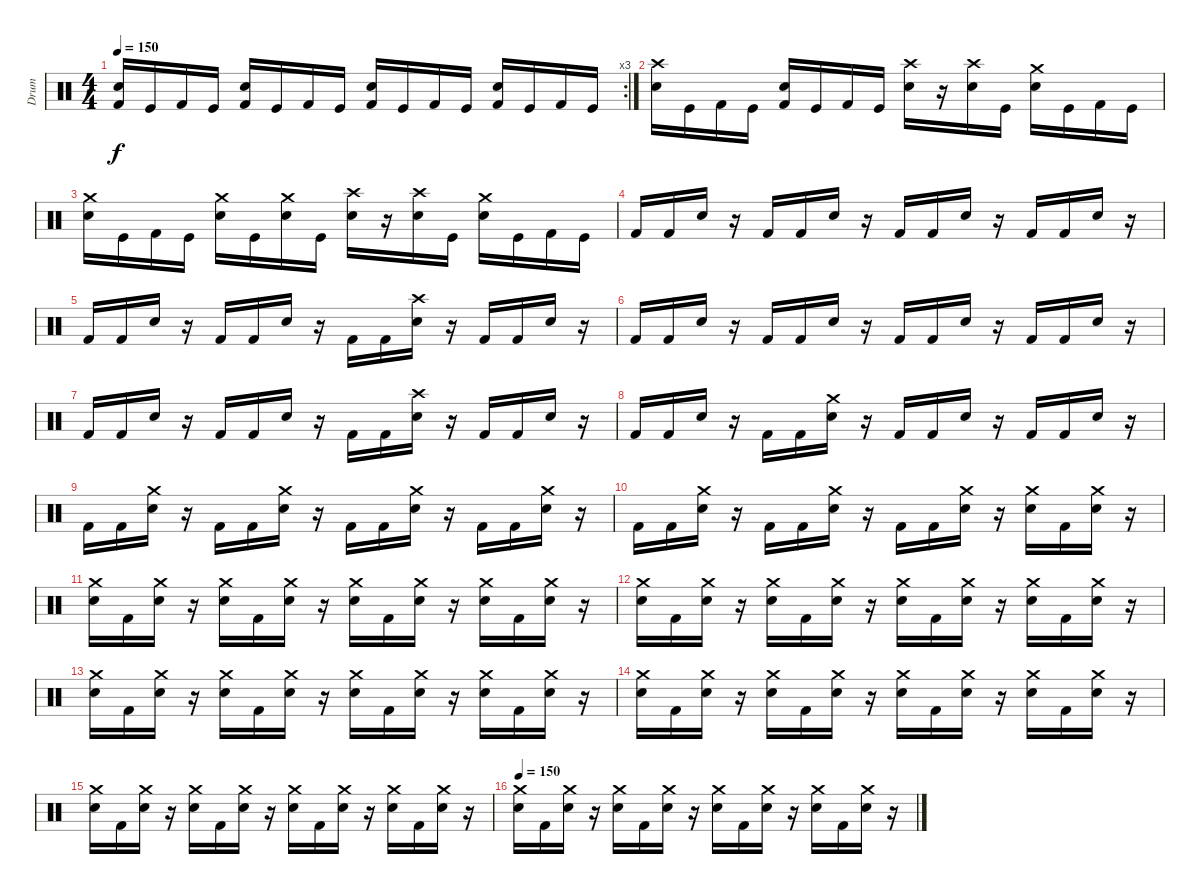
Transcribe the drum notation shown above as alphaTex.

\track ("Drum" "Drum") {instrument percussion}
\staff {score}
\articulation defaults
\rc 3
\ts (4 4)
\tempo 150
\clef neutral
\ks c
("Kick (hit) 2" "Snare (hit) 2").16{dy f} "Kick (hit)".16 "Kick (hit) 2".16 "Kick (hit)".16 ("Kick (hit) 2" "Snare (hit) 2").16 "Kick (hit)".16 "Kick (hit) 2".16 "Kick (hit)".16 ("Kick (hit) 2" "Snare (hit) 2").16 "Kick (hit)".16 "Kick (hit) 2".16 "Kick (hit)".16 ("Kick (hit) 2" "Snare (hit) 2").16 "Kick (hit)".16 "Kick (hit) 2".16 "Kick (hit)".16 |
("Crash high (hit)" "Electric Snare (hit)").16 "Kick (hit)".16 "Kick (hit) 2".16 "Kick (hit)".16 ("Kick (hit) 2" "Snare (hit) 2").16 "Kick (hit)".16 "Kick (hit) 2".16 "Kick (hit)".16 ("Crash high (hit)" "Electric Snare (hit)").16 r.16 ("Crash high (hit)" "Electric Snare (hit)").16 "Kick (hit)".16 ("Electric Snare (hit)" "Crash medium (hit)").16 "Kick (hit)".16 "Kick (hit) 2".16 "Kick (hit)".16 |
("Crash medium (hit)" "Electric Snare (hit)").16 "Kick (hit)".16 "Kick (hit) 2".16 "Kick (hit)".16 ("Electric Snare (hit)" "Crash medium (hit)").16 "Kick (hit)".16 ("Crash medium (hit)" "Electric Snare (hit)").16 "Kick (hit)".16 ("Crash high (hit)" "Electric Snare (hit)").16 r.16 ("Crash high (hit)" "Electric Snare (hit)").16 "Kick (hit)".16 ("Electric Snare (hit)" "Crash medium (hit)").16 "Kick (hit)".16 "Kick (hit) 2".16 "Kick (hit)".16 |
"Kick (hit) 2".16 "Kick (hit) 2".16 "Snare (hit) 2".16 r.16 "Kick (hit) 2".16 "Kick (hit) 2".16 "Snare (hit) 2".16 r.16 "Kick (hit) 2".16 "Kick (hit) 2".16 "Snare (hit) 2".16 r.16 "Kick (hit) 2".16 "Kick (hit) 2".16 "Snare (hit) 2".16 r.16 |
"Kick (hit) 2".16 "Kick (hit) 2".16 "Snare (hit) 2".16 r.16 "Kick (hit) 2".16 "Kick (hit) 2".16 "Snare (hit) 2".16 r.16 "Kick (hit) 2".16 "Kick (hit) 2".16 ("Electric Snare (hit)" "Crash high (hit)").16 r.16 "Kick (hit) 2".16 "Kick (hit) 2".16 "Snare (hit) 2".16 r.16 |
"Kick (hit) 2".16 "Kick (hit) 2".16 "Snare (hit) 2".16 r.16 "Kick (hit) 2".16 "Kick (hit) 2".16 "Snare (hit) 2".16 r.16 "Kick (hit) 2".16 "Kick (hit) 2".16 "Snare (hit) 2".16 r.16 "Kick (hit) 2".16 "Kick (hit) 2".16 "Snare (hit) 2".16 r.16 |
"Kick (hit) 2".16 "Kick (hit) 2".16 "Snare (hit) 2".16 r.16 "Kick (hit) 2".16 "Kick (hit) 2".16 "Snare (hit) 2".16 r.16 "Kick (hit) 2".16 "Kick (hit) 2".16 ("Electric Snare (hit)" "Crash high (hit)").16 r.16 "Kick (hit) 2".16 "Kick (hit) 2".16 "Snare (hit) 2".16 r.16 |
"Kick (hit) 2".16 "Kick (hit) 2".16 "Snare (hit) 2".16 r.16 "Kick (hit) 2".16 "Kick (hit) 2".16 ("Electric Snare (hit)" "Crash medium (hit)").16 r.16 "Kick (hit) 2".16 "Kick (hit) 2".16 "Snare (hit) 2".16 r.16 "Kick (hit) 2".16 "Kick (hit) 2".16 "Snare (hit) 2".16 r.16 |
"Kick (hit) 2".16 "Kick (hit) 2".16 ("Electric Snare (hit)" "Crash medium (hit)").16 r.16 "Kick (hit) 2".16 "Kick (hit) 2".16 ("Electric Snare (hit)" "Crash medium (hit)").16 r.16 "Kick (hit) 2".16 "Kick (hit) 2".16 ("Electric Snare (hit)" "Crash medium (hit)").16 r.16 "Kick (hit) 2".16 "Kick (hit) 2".16 ("Electric Snare (hit)" "Crash medium (hit)").16 r.16 |
"Kick (hit) 2".16 "Kick (hit) 2".16 ("Electric Snare (hit)" "Crash medium (hit)").16 r.16 "Kick (hit) 2".16 "Kick (hit) 2".16 ("Electric Snare (hit)" "Crash medium (hit)").16 r.16 "Kick (hit) 2".16 "Kick (hit) 2".16 ("Electric Snare (hit)" "Crash medium (hit)").16 r.16 ("Electric Snare (hit)" "Crash medium (hit)").16 "Kick (hit) 2".16 ("Electric Snare (hit)" "Crash medium (hit)").16 r.16 |
("Electric Snare (hit)" "Crash medium (hit)").16 "Kick (hit) 2".16 ("Electric Snare (hit)" "Crash medium (hit)").16 r.16 ("Electric Snare (hit)" "Crash medium (hit)").16 "Kick (hit) 2".16 ("Electric Snare (hit)" "Crash medium (hit)").16 r.16 ("Electric Snare (hit)" "Crash medium (hit)").16 "Kick (hit) 2".16 ("Electric Snare (hit)" "Crash medium (hit)").16 r.16 ("Electric Snare (hit)" "Crash medium (hit)").16 "Kick (hit) 2".16 ("Electric Snare (hit)" "Crash medium (hit)").16 r.16 |
("Electric Snare (hit)" "Crash medium (hit)").16 "Kick (hit) 2".16 ("Electric Snare (hit)" "Crash medium (hit)").16 r.16 ("Electric Snare (hit)" "Crash medium (hit)").16 "Kick (hit) 2".16 ("Electric Snare (hit)" "Crash medium (hit)").16 r.16 ("Electric Snare (hit)" "Crash medium (hit)").16 "Kick (hit) 2".16 ("Electric Snare (hit)" "Crash medium (hit)").16 r.16 ("Electric Snare (hit)" "Crash medium (hit)").16 "Kick (hit) 2".16 ("Electric Snare (hit)" "Crash medium (hit)").16 r.16 |
("Electric Snare (hit)" "Crash medium (hit)").16 "Kick (hit) 2".16 ("Electric Snare (hit)" "Crash medium (hit)").16 r.16 ("Electric Snare (hit)" "Crash medium (hit)").16 "Kick (hit) 2".16 ("Electric Snare (hit)" "Crash medium (hit)").16 r.16 ("Electric Snare (hit)" "Crash medium (hit)").16 "Kick (hit) 2".16 ("Electric Snare (hit)" "Crash medium (hit)").16 r.16 ("Electric Snare (hit)" "Crash medium (hit)").16 "Kick (hit) 2".16 ("Electric Snare (hit)" "Crash medium (hit)").16 r.16 |
("Electric Snare (hit)" "Crash medium (hit)").16 "Kick (hit) 2".16 ("Electric Snare (hit)" "Crash medium (hit)").16 r.16 ("Electric Snare (hit)" "Crash medium (hit)").16 "Kick (hit) 2".16 ("Electric Snare (hit)" "Crash medium (hit)").16 r.16 ("Electric Snare (hit)" "Crash medium (hit)").16 "Kick (hit) 2".16 ("Electric Snare (hit)" "Crash medium (hit)").16 r.16 ("Electric Snare (hit)" "Crash medium (hit)").16 "Kick (hit) 2".16 ("Electric Snare (hit)" "Crash medium (hit)").16 r.16 |
("Electric Snare (hit)" "Crash medium (hit)").16 "Kick (hit) 2".16 ("Electric Snare (hit)" "Crash medium (hit)").16 r.16 ("Electric Snare (hit)" "Crash medium (hit)").16 "Kick (hit) 2".16 ("Electric Snare (hit)" "Crash medium (hit)").16 r.16 ("Electric Snare (hit)" "Crash medium (hit)").16 "Kick (hit) 2".16 ("Electric Snare (hit)" "Crash medium (hit)").16 r.16 ("Electric Snare (hit)" "Crash medium (hit)").16 "Kick (hit) 2".16 ("Electric Snare (hit)" "Crash medium (hit)").16 r.16 |
\tempo 150
("Electric Snare (hit)" "Crash medium (hit)").16{volume 0} "Kick (hit) 2".16 ("Electric Snare (hit)" "Crash medium (hit)").16 r.16 ("Electric Snare (hit)" "Crash medium (hit)").16 "Kick (hit) 2".16 ("Electric Snare (hit)" "Crash medium (hit)").16 r.16 ("Electric Snare (hit)" "Crash medium (hit)").16 "Kick (hit) 2".16 ("Electric Snare (hit)" "Crash medium (hit)").16 r.16 ("Electric Snare (hit)" "Crash medium (hit)").16 "Kick (hit) 2".16 ("Electric Snare (hit)" "Crash medium (hit)").16 r.16
